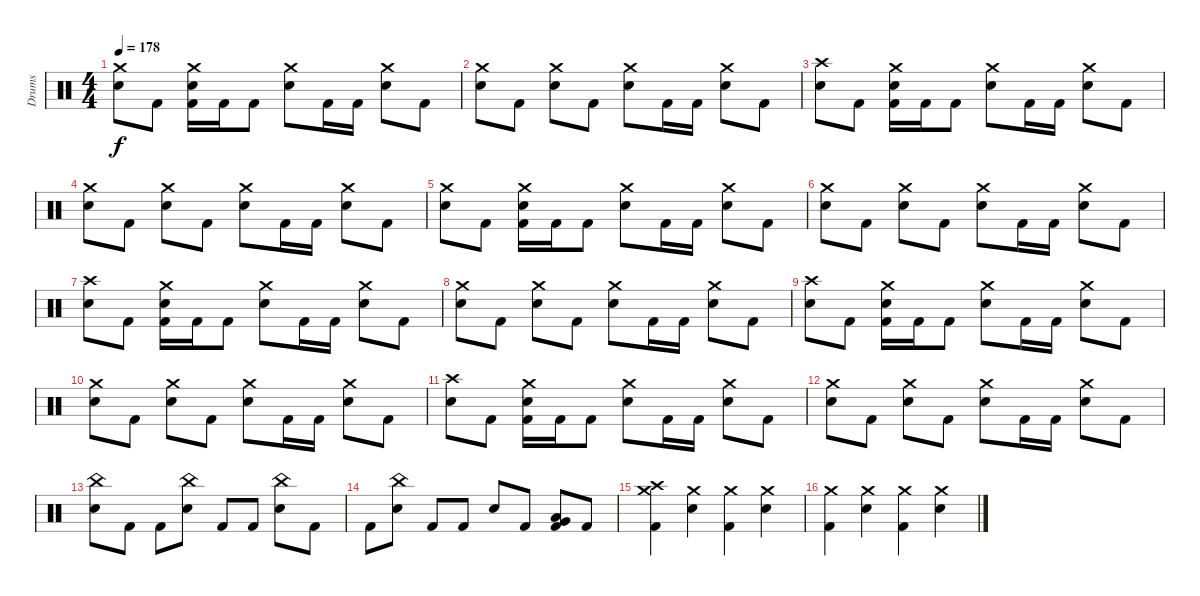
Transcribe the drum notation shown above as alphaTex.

\track ("Drums" "Drums") {instrument percussion}
\staff {score}
\articulation defaults
\ts (4 4)
\tempo 178
\clef neutral
\ks c
("Crash medium (hit)" "Electric Snare (hit)").8{dy f} "Kick (hit) 2".8 ("Crash medium (hit)" "Electric Snare (hit)" "Kick (hit) 2").16 "Kick (hit) 2".16 "Kick (hit) 2".8 ("Crash medium (hit)" "Electric Snare (hit)").8 "Kick (hit) 2".16 "Kick (hit) 2".16 ("Crash medium (hit)" "Electric Snare (hit)").8 "Kick (hit) 2".8 |
("Crash medium (hit)" "Electric Snare (hit)").8 "Kick (hit) 2".8 ("Crash medium (hit)" "Electric Snare (hit)").8 "Kick (hit) 2".8 ("Crash medium (hit)" "Electric Snare (hit)").8 "Kick (hit) 2".16 "Kick (hit) 2".16 ("Crash medium (hit)" "Electric Snare (hit)").8 "Kick (hit) 2".8 |
("Crash high (hit)" "Electric Snare (hit)").8 "Kick (hit) 2".8 ("Crash medium (hit)" "Electric Snare (hit)" "Kick (hit) 2").16 "Kick (hit) 2".16 "Kick (hit) 2".8 ("Crash medium (hit)" "Electric Snare (hit)").8 "Kick (hit) 2".16 "Kick (hit) 2".16 ("Crash medium (hit)" "Electric Snare (hit)").8 "Kick (hit) 2".8 |
("Crash medium (hit)" "Electric Snare (hit)").8 "Kick (hit) 2".8 ("Crash medium (hit)" "Electric Snare (hit)").8 "Kick (hit) 2".8 ("Crash medium (hit)" "Electric Snare (hit)").8 "Kick (hit) 2".16 "Kick (hit) 2".16 ("Crash medium (hit)" "Electric Snare (hit)").8 "Kick (hit) 2".8 |
("Crash medium (hit)" "Electric Snare (hit)").8 "Kick (hit) 2".8 ("Crash medium (hit)" "Electric Snare (hit)" "Kick (hit) 2").16 "Kick (hit) 2".16 "Kick (hit) 2".8 ("Crash medium (hit)" "Electric Snare (hit)").8 "Kick (hit) 2".16 "Kick (hit) 2".16 ("Crash medium (hit)" "Electric Snare (hit)").8 "Kick (hit) 2".8 |
("Crash medium (hit)" "Electric Snare (hit)").8 "Kick (hit) 2".8 ("Crash medium (hit)" "Electric Snare (hit)").8 "Kick (hit) 2".8 ("Crash medium (hit)" "Electric Snare (hit)").8 "Kick (hit) 2".16 "Kick (hit) 2".16 ("Crash medium (hit)" "Electric Snare (hit)").8 "Kick (hit) 2".8 |
("Crash high (hit)" "Electric Snare (hit)").8 "Kick (hit) 2".8 ("Crash medium (hit)" "Electric Snare (hit)" "Kick (hit) 2").16 "Kick (hit) 2".16 "Kick (hit) 2".8 ("Crash medium (hit)" "Electric Snare (hit)").8 "Kick (hit) 2".16 "Kick (hit) 2".16 ("Crash medium (hit)" "Electric Snare (hit)").8 "Kick (hit) 2".8 |
("Crash medium (hit)" "Electric Snare (hit)").8 "Kick (hit) 2".8 ("Crash medium (hit)" "Electric Snare (hit)").8 "Kick (hit) 2".8 ("Crash medium (hit)" "Electric Snare (hit)").8 "Kick (hit) 2".16 "Kick (hit) 2".16 ("Crash medium (hit)" "Electric Snare (hit)").8 "Kick (hit) 2".8 |
("Crash high (hit)" "Electric Snare (hit)").8 "Kick (hit) 2".8 ("Crash medium (hit)" "Electric Snare (hit)" "Kick (hit) 2").16 "Kick (hit) 2".16 "Kick (hit) 2".8 ("Crash medium (hit)" "Electric Snare (hit)").8 "Kick (hit) 2".16 "Kick (hit) 2".16 ("Crash medium (hit)" "Electric Snare (hit)").8 "Kick (hit) 2".8 |
("Crash medium (hit)" "Electric Snare (hit)").8 "Kick (hit) 2".8 ("Crash medium (hit)" "Electric Snare (hit)").8 "Kick (hit) 2".8 ("Crash medium (hit)" "Electric Snare (hit)").8 "Kick (hit) 2".16 "Kick (hit) 2".16 ("Crash medium (hit)" "Electric Snare (hit)").8 "Kick (hit) 2".8 |
("Crash high (hit)" "Electric Snare (hit)").8 "Kick (hit) 2".8 ("Crash medium (hit)" "Electric Snare (hit)" "Kick (hit) 2").16 "Kick (hit) 2".16 "Kick (hit) 2".8 ("Crash medium (hit)" "Electric Snare (hit)").8 "Kick (hit) 2".16 "Kick (hit) 2".16 ("Crash medium (hit)" "Electric Snare (hit)").8 "Kick (hit) 2".8 |
("Crash medium (hit)" "Electric Snare (hit)").8 "Kick (hit) 2".8 ("Crash medium (hit)" "Electric Snare (hit)").8 "Kick (hit) 2".8 ("Crash medium (hit)" "Electric Snare (hit)").8 "Kick (hit) 2".16 "Kick (hit) 2".16 ("Crash medium (hit)" "Electric Snare (hit)").8 "Kick (hit) 2".8 |
("China (hit)" "Electric Snare (hit)").8 "Kick (hit) 2".8 "Kick (hit) 2".8 ("China (hit)" "Electric Snare (hit)").8 "Kick (hit) 2".8 "Kick (hit) 2".8 ("China (hit)" "Electric Snare (hit)").8 "Kick (hit) 2".8 |
"Kick (hit) 2".8 ("China (hit)" "Electric Snare (hit)").8 "Kick (hit) 2".8 "Kick (hit) 2".8 "Electric Snare (hit)".8 "Kick (hit) 2".8 ("Low Floor Tom (hit)" "Very Low Tom (hit)" "Kick (hit) 2").8 "Kick (hit) 2".8 |
("Crash high (hit)" "Crash medium (hit)" "Kick (hit) 2").4 ("Crash medium (hit)" "Electric Snare (hit)").4 ("Crash medium (hit)" "Kick (hit) 2").4 ("Crash medium (hit)" "Electric Snare (hit)").4 |
("Crash medium (hit)" "Kick (hit) 2").4 ("Crash medium (hit)" "Electric Snare (hit)").4 ("Crash medium (hit)" "Kick (hit) 2").4 ("Crash medium (hit)" "Electric Snare (hit)").4
